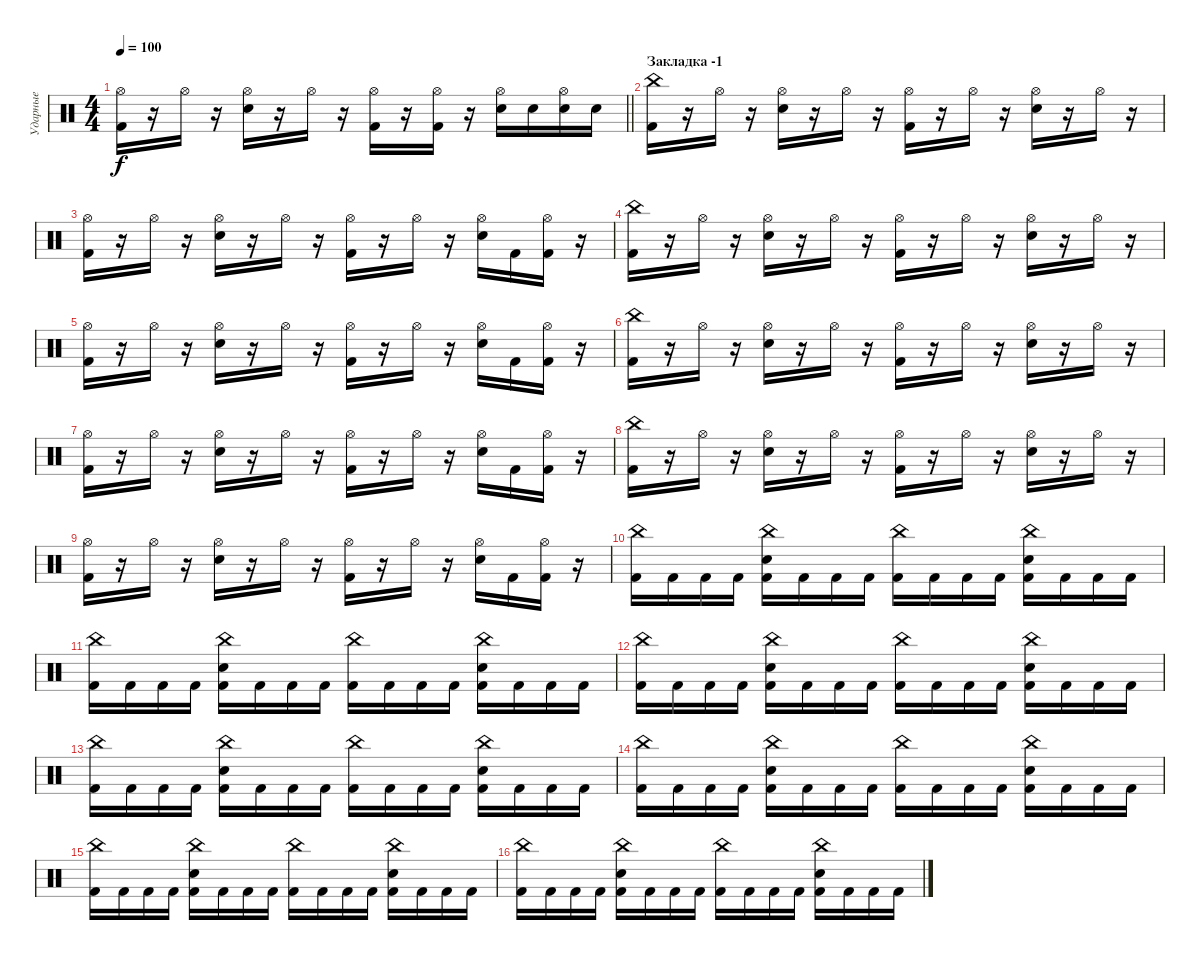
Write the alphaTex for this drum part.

\track ("Ударные" "Ударные") {instrument percussion}
\staff {score}
\articulation defaults
\ts (4 4)
\tempo 100
\clef neutral
\barLineRight lightlight
\ks c
("Hi-Hat (open)" "Kick (hit) 2").16{dy f} r.16 "Hi-Hat (open)".16 r.16 ("Hi-Hat (open)" "Electric Snare (hit)").16 r.16 "Hi-Hat (open)".16 r.16 ("Hi-Hat (open)" "Kick (hit) 2").16 r.16 ("Hi-Hat (open)" "Kick (hit) 2").16 r.16 ("Hi-Hat (open)" "Electric Snare (hit)").16 "Electric Snare (hit)".16 ("Hi-Hat (open)" "Electric Snare (hit)").16 "Electric Snare (hit)".16 |
\section ("" "Закладка -1")
("China (hit)" "Kick (hit) 2").16 r.16 "Hi-Hat (open)".16 r.16 ("Hi-Hat (open)" "Electric Snare (hit)").16 r.16 "Hi-Hat (open)".16 r.16 ("Hi-Hat (open)" "Kick (hit) 2").16 r.16 "Hi-Hat (open)".16 r.16 ("Hi-Hat (open)" "Electric Snare (hit)").16 r.16 "Hi-Hat (open)".16 r.16 |
("Hi-Hat (open)" "Kick (hit) 2").16 r.16 "Hi-Hat (open)".16 r.16 ("Hi-Hat (open)" "Electric Snare (hit)").16 r.16 "Hi-Hat (open)".16 r.16 ("Hi-Hat (open)" "Kick (hit) 2").16 r.16 "Hi-Hat (open)".16 r.16 ("Hi-Hat (open)" "Electric Snare (hit)").16 "Kick (hit) 2".16 ("Hi-Hat (open)" "Kick (hit) 2").16 r.16 |
("China (hit)" "Kick (hit) 2").16 r.16 "Hi-Hat (open)".16 r.16 ("Hi-Hat (open)" "Electric Snare (hit)").16 r.16 "Hi-Hat (open)".16 r.16 ("Hi-Hat (open)" "Kick (hit) 2").16 r.16 "Hi-Hat (open)".16 r.16 ("Hi-Hat (open)" "Electric Snare (hit)").16 r.16 "Hi-Hat (open)".16 r.16 |
("Hi-Hat (open)" "Kick (hit) 2").16 r.16 "Hi-Hat (open)".16 r.16 ("Hi-Hat (open)" "Electric Snare (hit)").16 r.16 "Hi-Hat (open)".16 r.16 ("Hi-Hat (open)" "Kick (hit) 2").16 r.16 "Hi-Hat (open)".16 r.16 ("Hi-Hat (open)" "Electric Snare (hit)").16 "Kick (hit) 2".16 ("Hi-Hat (open)" "Kick (hit) 2").16 r.16 |
("China (hit)" "Kick (hit) 2").16 r.16 "Hi-Hat (open)".16 r.16 ("Hi-Hat (open)" "Electric Snare (hit)").16 r.16 "Hi-Hat (open)".16 r.16 ("Hi-Hat (open)" "Kick (hit) 2").16 r.16 "Hi-Hat (open)".16 r.16 ("Hi-Hat (open)" "Electric Snare (hit)").16 r.16 "Hi-Hat (open)".16 r.16 |
("Hi-Hat (open)" "Kick (hit) 2").16 r.16 "Hi-Hat (open)".16 r.16 ("Hi-Hat (open)" "Electric Snare (hit)").16 r.16 "Hi-Hat (open)".16 r.16 ("Hi-Hat (open)" "Kick (hit) 2").16 r.16 "Hi-Hat (open)".16 r.16 ("Hi-Hat (open)" "Electric Snare (hit)").16 "Kick (hit) 2".16 ("Hi-Hat (open)" "Kick (hit) 2").16 r.16 |
("China (hit)" "Kick (hit) 2").16 r.16 "Hi-Hat (open)".16 r.16 ("Hi-Hat (open)" "Electric Snare (hit)").16 r.16 "Hi-Hat (open)".16 r.16 ("Hi-Hat (open)" "Kick (hit) 2").16 r.16 "Hi-Hat (open)".16 r.16 ("Hi-Hat (open)" "Electric Snare (hit)").16 r.16 "Hi-Hat (open)".16 r.16 |
("Hi-Hat (open)" "Kick (hit) 2").16 r.16 "Hi-Hat (open)".16 r.16 ("Hi-Hat (open)" "Electric Snare (hit)").16 r.16 "Hi-Hat (open)".16 r.16 ("Hi-Hat (open)" "Kick (hit) 2").16 r.16 "Hi-Hat (open)".16 r.16 ("Hi-Hat (open)" "Electric Snare (hit)").16 "Kick (hit) 2".16 ("Hi-Hat (open)" "Kick (hit) 2").16 r.16 |
("China (hit)" "Kick (hit) 2").16 "Kick (hit) 2".16 "Kick (hit) 2".16 "Kick (hit) 2".16 ("China (hit)" "Electric Snare (hit)" "Kick (hit) 2").16 "Kick (hit) 2".16 "Kick (hit) 2".16 "Kick (hit) 2".16 ("China (hit)" "Kick (hit) 2").16 "Kick (hit) 2".16 "Kick (hit) 2".16 "Kick (hit) 2".16 ("China (hit)" "Electric Snare (hit)" "Kick (hit) 2").16 "Kick (hit) 2".16 "Kick (hit) 2".16 "Kick (hit) 2".16 |
("China (hit)" "Kick (hit) 2").16 "Kick (hit) 2".16 "Kick (hit) 2".16 "Kick (hit) 2".16 ("China (hit)" "Electric Snare (hit)" "Kick (hit) 2").16 "Kick (hit) 2".16 "Kick (hit) 2".16 "Kick (hit) 2".16 ("China (hit)" "Kick (hit) 2").16 "Kick (hit) 2".16 "Kick (hit) 2".16 "Kick (hit) 2".16 ("China (hit)" "Electric Snare (hit)" "Kick (hit) 2").16 "Kick (hit) 2".16 "Kick (hit) 2".16 "Kick (hit) 2".16 |
("China (hit)" "Kick (hit) 2").16 "Kick (hit) 2".16 "Kick (hit) 2".16 "Kick (hit) 2".16 ("China (hit)" "Electric Snare (hit)" "Kick (hit) 2").16 "Kick (hit) 2".16 "Kick (hit) 2".16 "Kick (hit) 2".16 ("China (hit)" "Kick (hit) 2").16 "Kick (hit) 2".16 "Kick (hit) 2".16 "Kick (hit) 2".16 ("China (hit)" "Electric Snare (hit)" "Kick (hit) 2").16 "Kick (hit) 2".16 "Kick (hit) 2".16 "Kick (hit) 2".16 |
("China (hit)" "Kick (hit) 2").16 "Kick (hit) 2".16 "Kick (hit) 2".16 "Kick (hit) 2".16 ("China (hit)" "Electric Snare (hit)" "Kick (hit) 2").16 "Kick (hit) 2".16 "Kick (hit) 2".16 "Kick (hit) 2".16 ("China (hit)" "Kick (hit) 2").16 "Kick (hit) 2".16 "Kick (hit) 2".16 "Kick (hit) 2".16 ("China (hit)" "Electric Snare (hit)" "Kick (hit) 2").16 "Kick (hit) 2".16 "Kick (hit) 2".16 "Kick (hit) 2".16 |
("China (hit)" "Kick (hit) 2").16 "Kick (hit) 2".16 "Kick (hit) 2".16 "Kick (hit) 2".16 ("China (hit)" "Electric Snare (hit)" "Kick (hit) 2").16 "Kick (hit) 2".16 "Kick (hit) 2".16 "Kick (hit) 2".16 ("China (hit)" "Kick (hit) 2").16 "Kick (hit) 2".16 "Kick (hit) 2".16 "Kick (hit) 2".16 ("China (hit)" "Electric Snare (hit)" "Kick (hit) 2").16 "Kick (hit) 2".16 "Kick (hit) 2".16 "Kick (hit) 2".16 |
("China (hit)" "Kick (hit) 2").16 "Kick (hit) 2".16 "Kick (hit) 2".16 "Kick (hit) 2".16 ("China (hit)" "Electric Snare (hit)" "Kick (hit) 2").16 "Kick (hit) 2".16 "Kick (hit) 2".16 "Kick (hit) 2".16 ("China (hit)" "Kick (hit) 2").16 "Kick (hit) 2".16 "Kick (hit) 2".16 "Kick (hit) 2".16 ("China (hit)" "Electric Snare (hit)" "Kick (hit) 2").16 "Kick (hit) 2".16 "Kick (hit) 2".16 "Kick (hit) 2".16 |
("China (hit)" "Kick (hit) 2").16 "Kick (hit) 2".16 "Kick (hit) 2".16 "Kick (hit) 2".16 ("China (hit)" "Electric Snare (hit)" "Kick (hit) 2").16 "Kick (hit) 2".16 "Kick (hit) 2".16 "Kick (hit) 2".16 ("China (hit)" "Kick (hit) 2").16 "Kick (hit) 2".16 "Kick (hit) 2".16 "Kick (hit) 2".16 ("China (hit)" "Electric Snare (hit)" "Kick (hit) 2").16 "Kick (hit) 2".16 "Kick (hit) 2".16 "Kick (hit) 2".16
